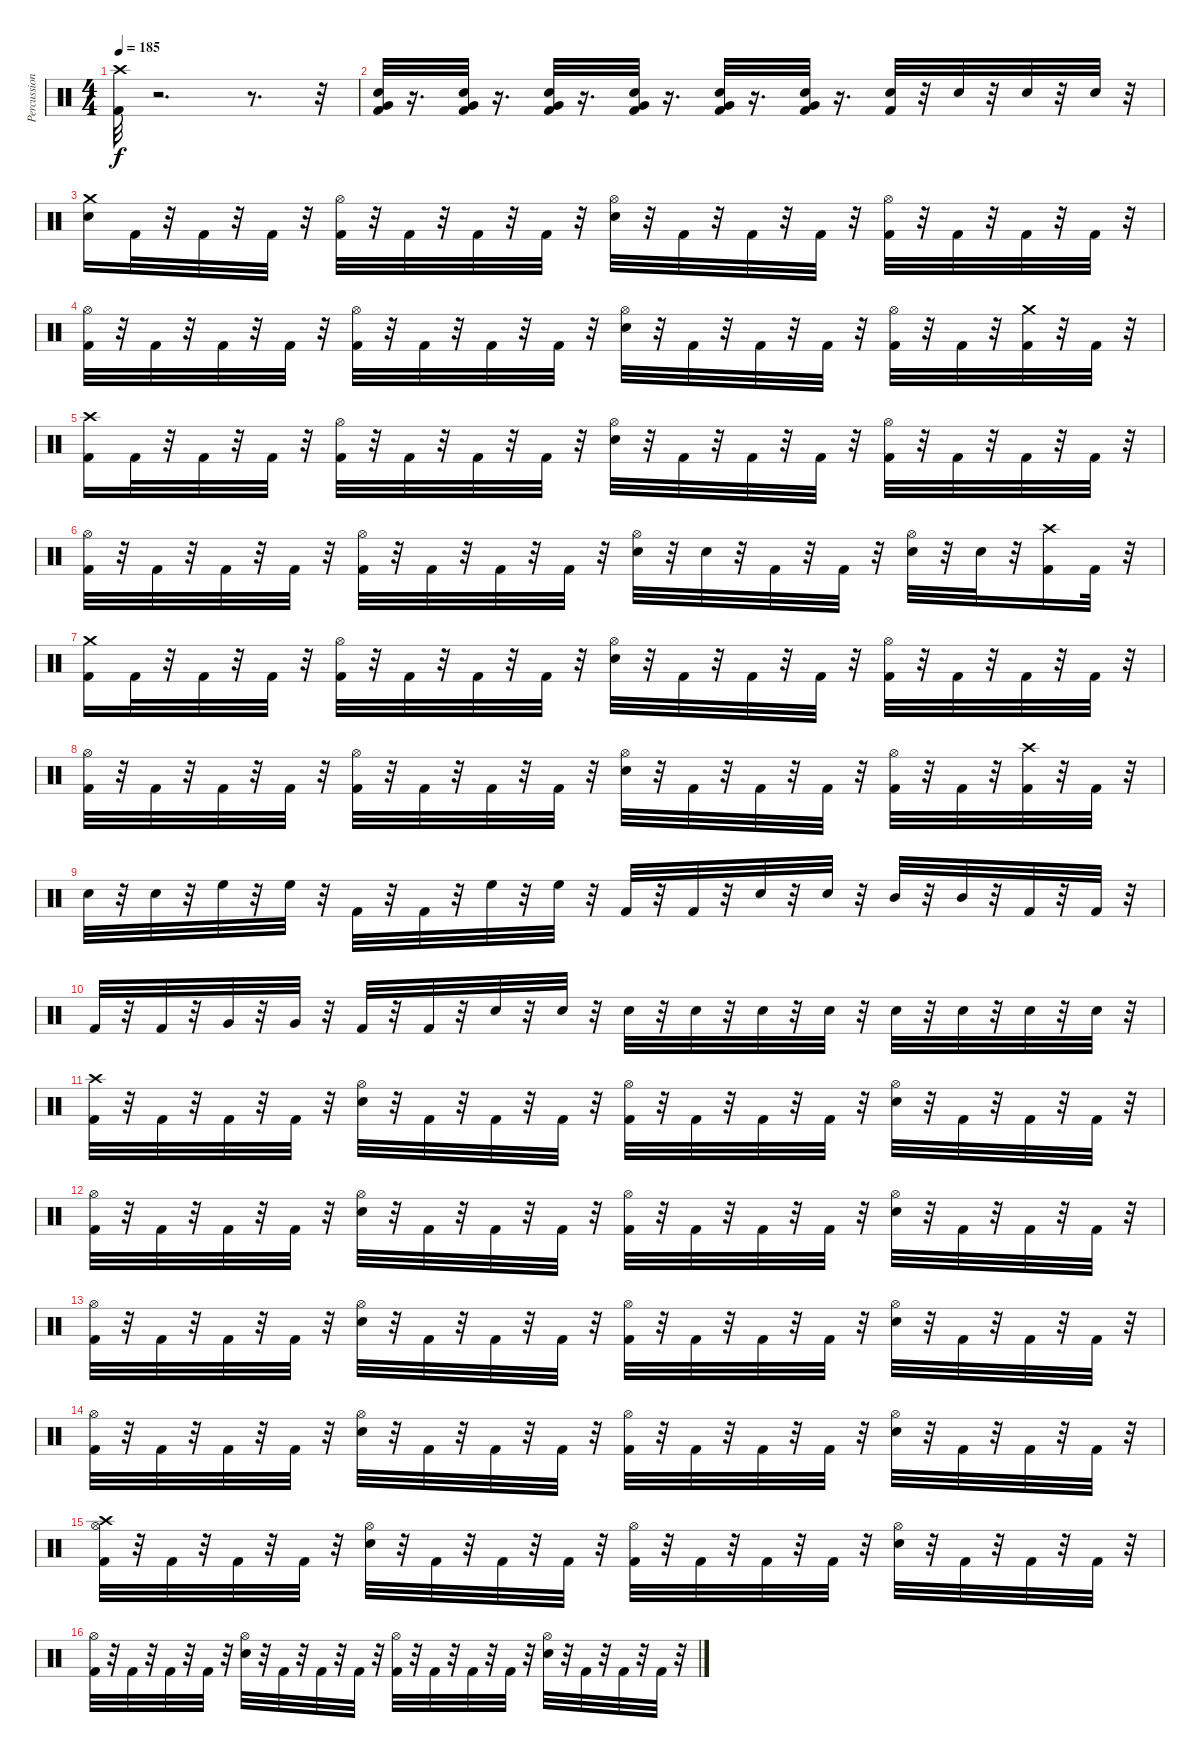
\track ("Percussion" "Percussion") {instrument percussion}
\staff {score}
\articulation defaults
\ts (4 4)
\tempo 185
\clef neutral
\ks c
("Kick (hit) 2" "Crash high (hit)").32{dy f} r.2{d} r.8{d} r.32 |
("Kick (hit) 2" "Snare (hit) 2" "Very Low Tom (hit)").32 r.16{d} ("Kick (hit) 2" "Snare (hit) 2" "Very Low Tom (hit)").32 r.16{d} ("Kick (hit) 2" "Snare (hit) 2" "Very Low Tom (hit)").32 r.16{d} ("Kick (hit) 2" "Snare (hit) 2" "Very Low Tom (hit)").32 r.16{d} ("Kick (hit) 2" "Snare (hit) 2" "Very Low Tom (hit)").32 r.16{d} ("Kick (hit) 2" "Snare (hit) 2" "Very Low Tom (hit)").32 r.16{d} ("Kick (hit) 2" "Snare (hit) 2").32 r.32 "Snare (hit) 2".32 r.32 "Snare (hit) 2".32 r.32 "Snare (hit) 2".32 r.32 |
("Snare (hit) 2" "Crash medium (hit)").16{volume 16} "Kick (hit) 2".32 r.32 "Kick (hit) 2".32 r.32 "Kick (hit) 2".32 r.32 ("Kick (hit) 2" "Hi-Hat (open)").32 r.32 "Kick (hit) 2".32 r.32 "Kick (hit) 2".32 r.32 "Kick (hit) 2".32 r.32 ("Snare (hit) 2" "Hi-Hat (open)").32 r.32 "Kick (hit) 2".32 r.32 "Kick (hit) 2".32 r.32 "Kick (hit) 2".32 r.32 ("Kick (hit) 2" "Hi-Hat (open)").32 r.32 "Kick (hit) 2".32 r.32 "Kick (hit) 2".32 r.32 "Kick (hit) 2".32 r.32 |
("Kick (hit) 2" "Hi-Hat (open)").32 r.32 "Kick (hit) 2".32 r.32 "Kick (hit) 2".32 r.32 "Kick (hit) 2".32 r.32 ("Kick (hit) 2" "Hi-Hat (open)").32 r.32 "Kick (hit) 2".32 r.32 "Kick (hit) 2".32 r.32 "Kick (hit) 2".32 r.32 ("Snare (hit) 2" "Hi-Hat (open)").32 r.32 "Kick (hit) 2".32 r.32 "Kick (hit) 2".32 r.32 "Kick (hit) 2".32 r.32 ("Kick (hit) 2" "Hi-Hat (open)").32 r.32 "Kick (hit) 2".32 r.32 ("Kick (hit) 2" "Crash medium (hit)").32 r.32 "Kick (hit) 2".32 r.32 |
("Kick (hit) 2" "Crash high (hit)").16 "Kick (hit) 2".32 r.32 "Kick (hit) 2".32 r.32 "Kick (hit) 2".32 r.32 ("Kick (hit) 2" "Hi-Hat (open)").32 r.32 "Kick (hit) 2".32 r.32 "Kick (hit) 2".32 r.32 "Kick (hit) 2".32 r.32 ("Snare (hit) 2" "Hi-Hat (open)").32 r.32 "Kick (hit) 2".32 r.32 "Kick (hit) 2".32 r.32 "Kick (hit) 2".32 r.32 ("Kick (hit) 2" "Hi-Hat (open)").32 r.32 "Kick (hit) 2".32 r.32 "Kick (hit) 2".32 r.32 "Kick (hit) 2".32 r.32 |
("Kick (hit) 2" "Hi-Hat (open)").32 r.32 "Kick (hit) 2".32 r.32 "Kick (hit) 2".32 r.32 "Kick (hit) 2".32 r.32 ("Kick (hit) 2" "Hi-Hat (open)").32 r.32 "Kick (hit) 2".32 r.32 "Kick (hit) 2".32 r.32 "Kick (hit) 2".32 r.32 ("Snare (hit) 2" "Hi-Hat (open)").32 r.32 "Snare (hit) 2".32 r.32 "Kick (hit) 2".32 r.32 "Kick (hit) 2".32 r.32 ("Snare (hit) 2" "Hi-Hat (open)").32 r.32 "Snare (hit) 2".32 r.32 ("Kick (hit) 2" "Crash high (hit)").16 "Kick (hit) 2".32 r.32 |
("Kick (hit) 2" "Crash medium (hit)").16 "Kick (hit) 2".32 r.32 "Kick (hit) 2".32 r.32 "Kick (hit) 2".32 r.32 ("Kick (hit) 2" "Hi-Hat (open)").32 r.32 "Kick (hit) 2".32 r.32 "Kick (hit) 2".32 r.32 "Kick (hit) 2".32 r.32 ("Snare (hit) 2" "Hi-Hat (open)").32 r.32 "Kick (hit) 2".32 r.32 "Kick (hit) 2".32 r.32 "Kick (hit) 2".32 r.32 ("Kick (hit) 2" "Hi-Hat (open)").32 r.32 "Kick (hit) 2".32 r.32 "Kick (hit) 2".32 r.32 "Kick (hit) 2".32 r.32 |
("Kick (hit) 2" "Hi-Hat (open)").32 r.32 "Kick (hit) 2".32 r.32 "Kick (hit) 2".32 r.32 "Kick (hit) 2".32 r.32 ("Kick (hit) 2" "Hi-Hat (open)").32 r.32 "Kick (hit) 2".32 r.32 "Kick (hit) 2".32 r.32 "Kick (hit) 2".32 r.32 ("Snare (hit) 2" "Hi-Hat (open)").32 r.32 "Kick (hit) 2".32 r.32 "Kick (hit) 2".32 r.32 "Kick (hit) 2".32 r.32 ("Kick (hit) 2" "Hi-Hat (open)").32 r.32 "Kick (hit) 2".32 r.32 ("Kick (hit) 2" "Crash high (hit)").32 r.32 "Kick (hit) 2".32 r.32 |
"Snare (hit) 2".32 r.32 "Snare (hit) 2".32 r.32 "High Floor Tom (hit)".32 r.32 "High Floor Tom (hit)".32 r.32 "Kick (hit) 2".32 r.32 "Kick (hit) 2".32 r.32 "High Floor Tom (hit)".32 r.32 "High Floor Tom (hit)".32 r.32 "Kick (hit) 2".32 r.32 "Kick (hit) 2".32 r.32 "Snare (hit) 2".32 r.32 "Snare (hit) 2".32 r.32 "Mid Tom (hit)".32 r.32 "Mid Tom (hit)".32 r.32 "Kick (hit) 2".32 r.32 "Kick (hit) 2".32 r.32 |
"Kick (hit) 2".32 r.32 "Kick (hit) 2".32 r.32 "Very Low Tom (hit)".32 r.32 "Very Low Tom (hit)".32 r.32 "Kick (hit) 2".32 r.32 "Kick (hit) 2".32 r.32 "Snare (hit) 2".32 r.32 "Snare (hit) 2".32 r.32 "Snare (hit) 2".32 r.32 "Snare (hit) 2".32 r.32 "Snare (hit) 2".32 r.32 "Snare (hit) 2".32 r.32 "Snare (hit) 2".32 r.32 "Snare (hit) 2".32 r.32 "Snare (hit) 2".32 r.32 "Snare (hit) 2".32 r.32 |
("Kick (hit) 2" "Crash high (hit)").32 r.32 "Kick (hit) 2".32 r.32 "Kick (hit) 2".32 r.32 "Kick (hit) 2".32 r.32 ("Snare (hit) 2" "Hi-Hat (open)").32 r.32 "Kick (hit) 2".32 r.32 "Kick (hit) 2".32 r.32 "Kick (hit) 2".32 r.32 ("Kick (hit) 2" "Hi-Hat (open)").32 r.32 "Kick (hit) 2".32 r.32 "Kick (hit) 2".32 r.32 "Kick (hit) 2".32 r.32 ("Snare (hit) 2" "Hi-Hat (open)").32 r.32 "Kick (hit) 2".32 r.32 "Kick (hit) 2".32 r.32 "Kick (hit) 2".32 r.32 |
("Kick (hit) 2" "Hi-Hat (open)").32 r.32 "Kick (hit) 2".32 r.32 "Kick (hit) 2".32 r.32 "Kick (hit) 2".32 r.32 ("Snare (hit) 2" "Hi-Hat (open)").32 r.32 "Kick (hit) 2".32 r.32 "Kick (hit) 2".32 r.32 "Kick (hit) 2".32 r.32 ("Kick (hit) 2" "Hi-Hat (open)").32 r.32 "Kick (hit) 2".32 r.32 "Kick (hit) 2".32 r.32 "Kick (hit) 2".32 r.32 ("Snare (hit) 2" "Hi-Hat (open)").32 r.32 "Kick (hit) 2".32 r.32 "Kick (hit) 2".32 r.32 "Kick (hit) 2".32 r.32 |
("Kick (hit) 2" "Hi-Hat (open)").32 r.32 "Kick (hit) 2".32 r.32 "Kick (hit) 2".32 r.32 "Kick (hit) 2".32 r.32 ("Snare (hit) 2" "Hi-Hat (open)").32 r.32 "Kick (hit) 2".32 r.32 "Kick (hit) 2".32 r.32 "Kick (hit) 2".32 r.32 ("Kick (hit) 2" "Hi-Hat (open)").32 r.32 "Kick (hit) 2".32 r.32 "Kick (hit) 2".32 r.32 "Kick (hit) 2".32 r.32 ("Snare (hit) 2" "Hi-Hat (open)").32 r.32 "Kick (hit) 2".32 r.32 "Kick (hit) 2".32 r.32 "Kick (hit) 2".32 r.32 |
("Kick (hit) 2" "Hi-Hat (open)").32 r.32 "Kick (hit) 2".32 r.32 "Kick (hit) 2".32 r.32 "Kick (hit) 2".32 r.32 ("Snare (hit) 2" "Hi-Hat (open)").32 r.32 "Kick (hit) 2".32 r.32 "Kick (hit) 2".32 r.32 "Kick (hit) 2".32 r.32 ("Kick (hit) 2" "Hi-Hat (open)").32 r.32 "Kick (hit) 2".32 r.32 "Kick (hit) 2".32 r.32 "Kick (hit) 2".32 r.32 ("Snare (hit) 2" "Hi-Hat (open)").32 r.32 "Kick (hit) 2".32 r.32 "Kick (hit) 2".32 r.32 "Kick (hit) 2".32 r.32 |
("Kick (hit) 2" "Hi-Hat (open)" "Crash high (hit)").32 r.32 "Kick (hit) 2".32 r.32 "Kick (hit) 2".32 r.32 "Kick (hit) 2".32 r.32 ("Snare (hit) 2" "Hi-Hat (open)").32 r.32 "Kick (hit) 2".32 r.32 "Kick (hit) 2".32 r.32 "Kick (hit) 2".32 r.32 ("Kick (hit) 2" "Hi-Hat (open)").32 r.32 "Kick (hit) 2".32 r.32 "Kick (hit) 2".32 r.32 "Kick (hit) 2".32 r.32 ("Snare (hit) 2" "Hi-Hat (open)").32 r.32 "Kick (hit) 2".32 r.32 "Kick (hit) 2".32 r.32 "Kick (hit) 2".32 r.32 |
("Kick (hit) 2" "Hi-Hat (open)").32 r.32 "Kick (hit) 2".32 r.32 "Kick (hit) 2".32 r.32 "Kick (hit) 2".32 r.32 ("Snare (hit) 2" "Hi-Hat (open)").32 r.32 "Kick (hit) 2".32 r.32 "Kick (hit) 2".32 r.32 "Kick (hit) 2".32 r.32 ("Kick (hit) 2" "Hi-Hat (open)").32 r.32 "Kick (hit) 2".32 r.32 "Kick (hit) 2".32 r.32 "Kick (hit) 2".32 r.32 ("Snare (hit) 2" "Hi-Hat (open)").32 r.32 "Kick (hit) 2".32 r.32 "Kick (hit) 2".32 r.32 "Kick (hit) 2".32 r.32
